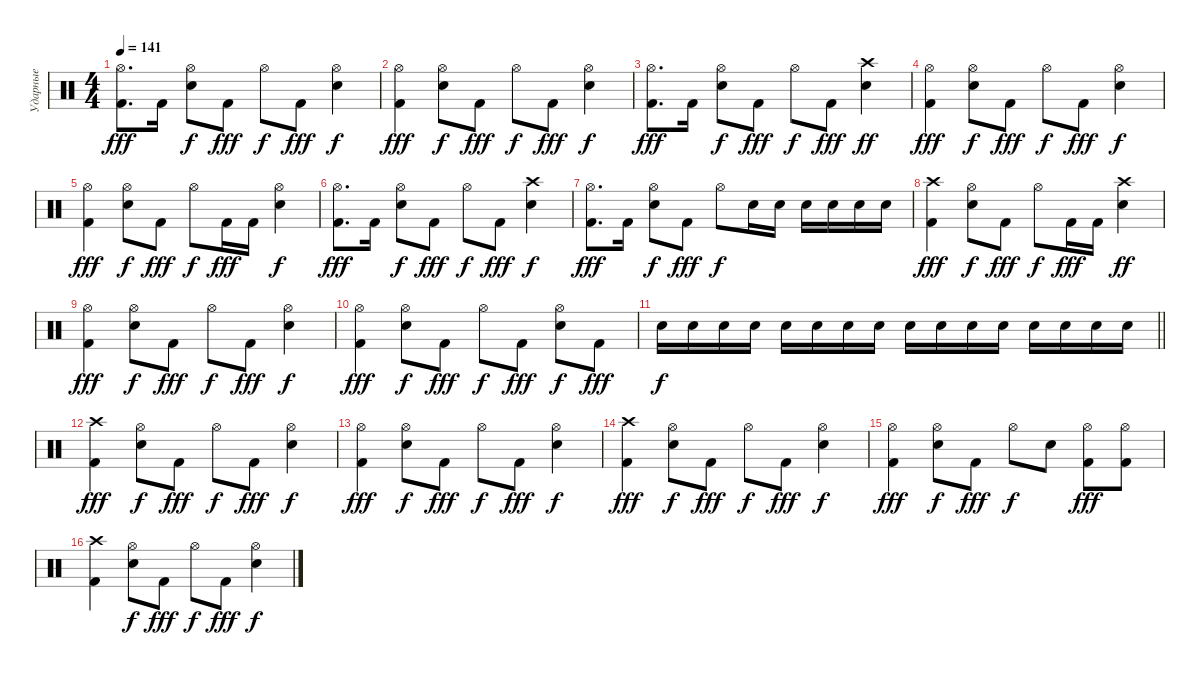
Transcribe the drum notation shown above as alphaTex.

\track ("Ударные" "Ударные") {instrument percussion}
\staff {score}
\articulation defaults
\ts (4 4)
\tempo 141
\clef neutral
\ks c
("Kick (hit) 2" "Hi-Hat (open)").8{d dy fff} "Kick (hit) 2".16 ("Snare (hit) 2" "Hi-Hat (open)").8{dy f} "Kick (hit) 2".8{dy fff} "Hi-Hat (open)".8{dy f} "Kick (hit) 2".8{dy fff} ("Snare (hit) 2" "Hi-Hat (open)").4{dy f} |
("Kick (hit) 2" "Hi-Hat (open)").4{dy fff} ("Snare (hit) 2" "Hi-Hat (open)").8{dy f} "Kick (hit) 2".8{dy fff} "Hi-Hat (open)".8{dy f} "Kick (hit) 2".8{dy fff} ("Snare (hit) 2" "Hi-Hat (open)").4{dy f} |
("Kick (hit) 2" "Hi-Hat (open)").8{d dy fff} "Kick (hit) 2".16 ("Snare (hit) 2" "Hi-Hat (open)").8{dy f} "Kick (hit) 2".8{dy fff} "Hi-Hat (open)".8{dy f} "Kick (hit) 2".8{dy fff} ("Snare (hit) 2" "Crash high (hit)").4{dy ff} |
("Kick (hit) 2" "Hi-Hat (open)").4{dy fff} ("Snare (hit) 2" "Hi-Hat (open)").8{dy f} "Kick (hit) 2".8{dy fff} "Hi-Hat (open)".8{dy f} "Kick (hit) 2".8{dy fff} ("Snare (hit) 2" "Hi-Hat (open)").4{dy f} |
("Kick (hit) 2" "Hi-Hat (open)").4{dy fff} ("Snare (hit) 2" "Hi-Hat (open)").8{dy f} "Kick (hit) 2".8{dy fff} "Hi-Hat (open)".8{dy f} "Kick (hit) 2".16{dy fff} "Kick (hit) 2".16 ("Snare (hit) 2" "Hi-Hat (open)").4{dy f} |
("Kick (hit) 2" "Hi-Hat (open)").8{d dy fff} "Kick (hit) 2".16 ("Snare (hit) 2" "Hi-Hat (open)").8{dy f} "Kick (hit) 2".8{dy fff} "Hi-Hat (open)".8{dy f} "Kick (hit) 2".8{dy fff} ("Snare (hit) 2" "Crash high (hit)").4{dy f} |
("Kick (hit) 2" "Hi-Hat (open)").8{d dy fff} "Kick (hit) 2".16 ("Snare (hit) 2" "Hi-Hat (open)").8{dy f} "Kick (hit) 2".8{dy fff} "Hi-Hat (open)".8{dy f} "Snare (hit) 2".16 "Snare (hit) 2".16 "Snare (hit) 2".16 "Snare (hit) 2".16 "Snare (hit) 2".16 "Snare (hit) 2".16 |
("Kick (hit) 2" "Crash high (hit)").4{dy fff} ("Snare (hit) 2" "Hi-Hat (open)").8{dy f} "Kick (hit) 2".8{dy fff} "Hi-Hat (open)".8{dy f} "Kick (hit) 2".16{dy fff} "Kick (hit) 2".16 ("Snare (hit) 2" "Crash high (hit)").4{dy ff} |
("Kick (hit) 2" "Hi-Hat (open)").4{dy fff} ("Snare (hit) 2" "Hi-Hat (open)").8{dy f} "Kick (hit) 2".8{dy fff} "Hi-Hat (open)".8{dy f} "Kick (hit) 2".8{dy fff} ("Snare (hit) 2" "Hi-Hat (open)").4{dy f} |
("Kick (hit) 2" "Hi-Hat (open)").4{dy fff} ("Snare (hit) 2" "Hi-Hat (open)").8{dy f} "Kick (hit) 2".8{dy fff} "Hi-Hat (open)".8{dy f} "Kick (hit) 2".8{dy fff} ("Snare (hit) 2" "Hi-Hat (open)").8{dy f} "Kick (hit) 2".8{dy fff} |
\barLineRight lightlight "Snare (hit) 2".16{dy f} "Snare (hit) 2".16 "Snare (hit) 2".16 "Snare (hit) 2".16 "Snare (hit) 2".16 "Snare (hit) 2".16 "Snare (hit) 2".16 "Snare (hit) 2".16 "Snare (hit) 2".16 "Snare (hit) 2".16 "Snare (hit) 2".16 "Snare (hit) 2".16 "Snare (hit) 2".16 "Snare (hit) 2".16 "Snare (hit) 2".16 "Snare (hit) 2".16
|
("Kick (hit) 2" "Crash high (hit)").4{dy fff} ("Snare (hit) 2" "Hi-Hat (open)").8{dy f} "Kick (hit) 2".8{dy fff} "Hi-Hat (open)".8{dy f} "Kick (hit) 2".8{dy fff} ("Snare (hit) 2" "Hi-Hat (open)").4{dy f} |
("Kick (hit) 2" "Hi-Hat (open)").4{dy fff} ("Snare (hit) 2" "Hi-Hat (open)").8{dy f} "Kick (hit) 2".8{dy fff} "Hi-Hat (open)".8{dy f} "Kick (hit) 2".8{dy fff} ("Snare (hit) 2" "Hi-Hat (open)").4{dy f} |
("Kick (hit) 2" "Crash high (hit)").4{dy fff} ("Snare (hit) 2" "Hi-Hat (open)").8{dy f} "Kick (hit) 2".8{dy fff} "Hi-Hat (open)".8{dy f} "Kick (hit) 2".8{dy fff} ("Snare (hit) 2" "Hi-Hat (open)").4{dy f} |
("Kick (hit) 2" "Hi-Hat (open)").4{dy fff} ("Snare (hit) 2" "Hi-Hat (open)").8{dy f} "Kick (hit) 2".8{dy fff} "Hi-Hat (open)".8{dy f} "Snare (hit) 2".8 ("Kick (hit) 2" "Hi-Hat (open)").8{dy fff} ("Kick (hit) 2" "Hi-Hat (open)").8 |
("Kick (hit) 2" "Crash high (hit)").4 ("Snare (hit) 2" "Hi-Hat (open)").8{dy f} "Kick (hit) 2".8{dy fff} "Hi-Hat (open)".8{dy f} "Kick (hit) 2".8{dy fff} ("Snare (hit) 2" "Hi-Hat (open)").4{dy f}
